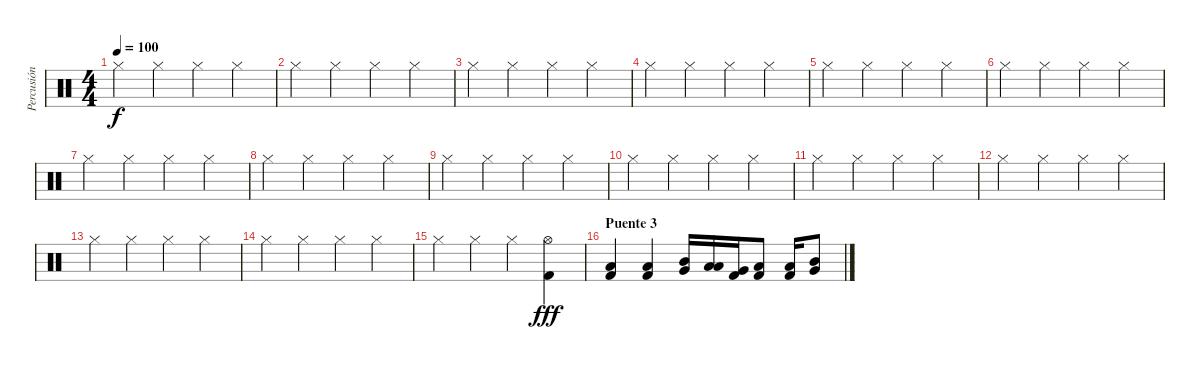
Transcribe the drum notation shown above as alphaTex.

\track ("Percusión" "Percusión") {instrument percussion}
\staff {score}
\articulation defaults
\ts (4 4)
\tempo 100
\clef neutral
\ks c "Hi-Hat (closed)".4{dy f} "Hi-Hat (closed)".4 "Hi-Hat (closed)".4 "Hi-Hat (closed)".4
|
"Hi-Hat (closed)".4 "Hi-Hat (closed)".4 "Hi-Hat (closed)".4 "Hi-Hat (closed)".4 |
"Hi-Hat (closed)".4 "Hi-Hat (closed)".4 "Hi-Hat (closed)".4 "Hi-Hat (closed)".4 |
"Hi-Hat (closed)".4 "Hi-Hat (closed)".4 "Hi-Hat (closed)".4 "Hi-Hat (closed)".4 |
"Hi-Hat (closed)".4 "Hi-Hat (closed)".4 "Hi-Hat (closed)".4 "Hi-Hat (closed)".4 |
"Hi-Hat (closed)".4 "Hi-Hat (closed)".4 "Hi-Hat (closed)".4 "Hi-Hat (closed)".4 |
"Hi-Hat (closed)".4 "Hi-Hat (closed)".4 "Hi-Hat (closed)".4 "Hi-Hat (closed)".4 |
"Hi-Hat (closed)".4 "Hi-Hat (closed)".4 "Hi-Hat (closed)".4 "Hi-Hat (closed)".4 |
"Hi-Hat (closed)".4 "Hi-Hat (closed)".4 "Hi-Hat (closed)".4 "Hi-Hat (closed)".4 |
"Hi-Hat (closed)".4 "Hi-Hat (closed)".4 "Hi-Hat (closed)".4 "Hi-Hat (closed)".4 |
"Hi-Hat (closed)".4 "Hi-Hat (closed)".4 "Hi-Hat (closed)".4 "Hi-Hat (closed)".4 |
"Hi-Hat (closed)".4 "Hi-Hat (closed)".4 "Hi-Hat (closed)".4 "Hi-Hat (closed)".4 |
"Hi-Hat (closed)".4 "Hi-Hat (closed)".4 "Hi-Hat (closed)".4 "Hi-Hat (closed)".4 |
"Hi-Hat (closed)".4 "Hi-Hat (closed)".4 "Hi-Hat (closed)".4 "Hi-Hat (closed)".4 |
"Hi-Hat (closed)".4 "Hi-Hat (closed)".4 "Hi-Hat (closed)".4 ("Hi-Hat (open)" "Kick (hit) 2").4{dy fff} |
\section ("" "Puente 3")
("Kick (hit) 2" "Low Floor Tom (hit)").4 ("Kick (hit) 2" "Low Floor Tom (hit)").4 ("Mid Tom (hit)" "Very Low Tom (hit)").16{bd 480} ("Low Tom (hit)" "Low Floor Tom (hit)").16{bd 480} ("Very Low Tom (hit)" "Kick (hit) 2").16{bd 480} ("Kick (hit) 2" "Low Floor Tom (hit)").8 ("Kick (hit) 2" "Low Floor Tom (hit)").16 ("Mid Tom (hit)" "Very Low Tom (hit)").8
